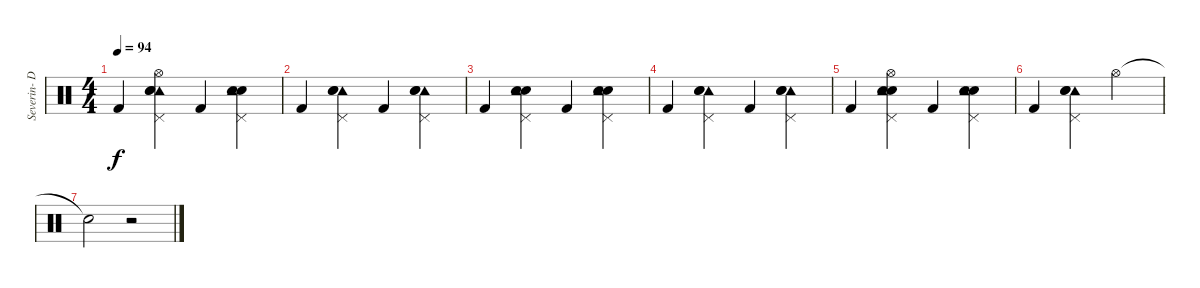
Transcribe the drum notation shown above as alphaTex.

\track ("Severin- Drums" "Severin- D") {instrument percussion}
\staff {score}
\articulation defaults
\ts (4 4)
\tempo 94
\clef neutral
\ks c "Kick (hit) 2".4{dy f}
("Hi-Hat (open)" "Tambourine (hit)" "Pedal Hi-Hat (hit)" "Electric Snare (hit)" "Snare (hit) 2").4 "Kick (hit) 2".4 ("Snare (hit) 2" "Electric Snare (hit)" "Pedal Hi-Hat (hit)" "Tambourine (hit)").4 |
"Kick (hit) 2".4 ("Tambourine (hit)" "Pedal Hi-Hat (hit)" "Electric Snare (hit)" "Snare (hit) 2").4 "Kick (hit) 2".4 ("Tambourine (hit)" "Electric Snare (hit)" "Snare (hit) 2" "Pedal Hi-Hat (hit)").4 |
"Kick (hit) 2".4 ("Snare (hit) 2" "Electric Snare (hit)" "Pedal Hi-Hat (hit)" "Tambourine (hit)").4 "Kick (hit) 2".4 ("Snare (hit) 2" "Electric Snare (hit)" "Pedal Hi-Hat (hit)" "Tambourine (hit)").4 |
"Kick (hit) 2".4 ("Tambourine (hit)" "Pedal Hi-Hat (hit)" "Electric Snare (hit)" "Snare (hit) 2").4 "Kick (hit) 2".4 ("Tambourine (hit)" "Electric Snare (hit)" "Snare (hit) 2" "Pedal Hi-Hat (hit)").4 |
"Kick (hit) 2".4 ("Snare (hit) 2" "Electric Snare (hit)" "Pedal Hi-Hat (hit)" "Tambourine (hit)" "Hi-Hat (open)").4 "Kick (hit) 2".4 ("Snare (hit) 2" "Electric Snare (hit)" "Pedal Hi-Hat (hit)" "Tambourine (hit)").4 |
"Kick (hit) 2".4 ("Tambourine (hit)" "Pedal Hi-Hat (hit)" "Electric Snare (hit)" "Snare (hit) 2").4 "Hi-Hat (open)".2 |
"Snare (hit)"{t}.2 r.2
